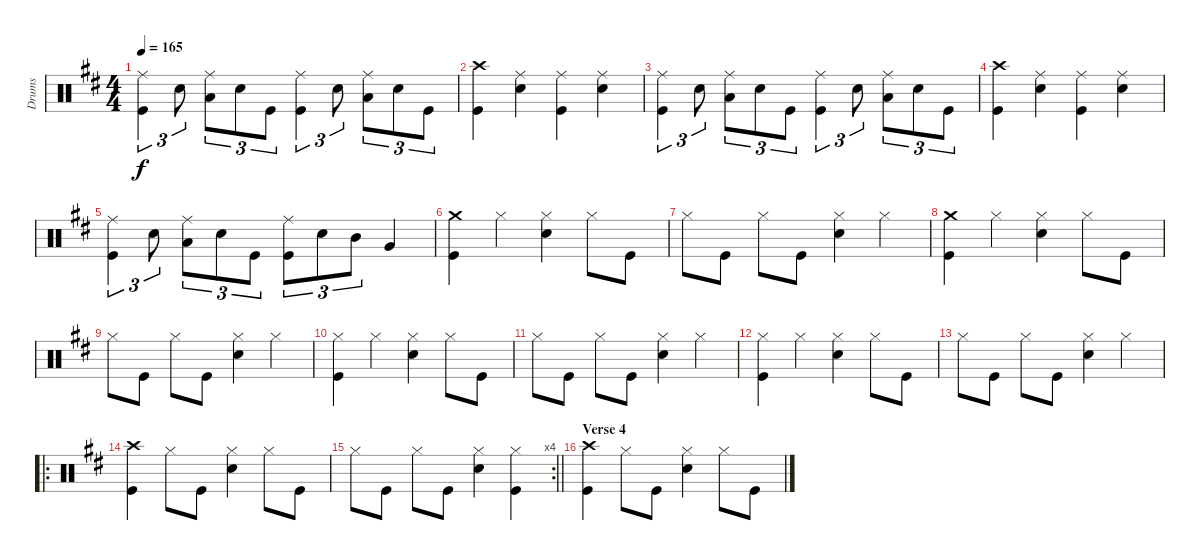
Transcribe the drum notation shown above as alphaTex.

\track ("Drums" "Drums") {instrument percussion}
\staff {score}
\articulation defaults
\ts (4 4)
\tempo 165
\clef neutral
\ks d
("Ride (middle)" "Kick (hit)").4{tu (3 2) dy f} "Snare (hit) 2".8{tu (3 2)} ("Ride (middle)" "Low Tom (hit)").8{tu (3 2)} "Snare (hit) 2".8{tu (3 2)} "Kick (hit)".8{tu (3 2)} ("Ride (middle)" "Kick (hit)").4{tu (3 2)} "Snare (hit) 2".8{tu (3 2)} ("Ride (middle)" "Low Tom (hit)").8{tu (3 2)} "Snare (hit) 2".8{tu (3 2)} "Kick (hit)".8{tu (3 2)} |
("Crash high (hit)" "Kick (hit)").4 ("Ride (middle)" "Snare (hit) 2").4 ("Ride (middle)" "Kick (hit)").4 ("Ride (middle)" "Snare (hit) 2").4 |
("Ride (middle)" "Kick (hit)").4{tu (3 2)} "Snare (hit) 2".8{tu (3 2)} ("Ride (middle)" "Low Tom (hit)").8{tu (3 2)} "Snare (hit) 2".8{tu (3 2)} "Kick (hit)".8{tu (3 2)} ("Ride (middle)" "Kick (hit)").4{tu (3 2)} "Snare (hit) 2".8{tu (3 2)} ("Ride (middle)" "Low Tom (hit)").8{tu (3 2)} "Snare (hit) 2".8{tu (3 2)} "Kick (hit)".8{tu (3 2)} |
("Crash high (hit)" "Kick (hit)").4 ("Ride (middle)" "Snare (hit) 2").4 ("Ride (middle)" "Kick (hit)").4 ("Ride (middle)" "Snare (hit) 2").4 |
("Ride (middle)" "Kick (hit)").4{tu (3 2)} "Snare (hit) 2".8{tu (3 2)} ("Ride (middle)" "Low Tom (hit)").8{tu (3 2)} "Snare (hit) 2".8{tu (3 2)} "Kick (hit)".8{tu (3 2)} ("Ride (middle)" "Kick (hit)").8{tu (3 2)} "Snare (hit) 2".8{tu (3 2)} "Mid Tom (hit)".8{tu (3 2)} "Very Low Tom (hit)".4 |
("Crash medium (hit)" "Kick (hit)").4 "Hi-Hat (closed)".4 ("Hi-Hat (closed)" "Snare (hit) 2").4 "Hi-Hat (closed)".8 "Kick (hit)".8 |
"Hi-Hat (closed)".8 "Kick (hit)".8 "Hi-Hat (closed)".8 "Kick (hit)".8 ("Hi-Hat (closed)" "Snare (hit) 2").4 "Hi-Hat (closed)".4 |
("Crash medium (hit)" "Kick (hit)").4 "Hi-Hat (closed)".4 ("Hi-Hat (closed)" "Snare (hit) 2").4 "Hi-Hat (closed)".8 "Kick (hit)".8 |
"Hi-Hat (closed)".8 "Kick (hit)".8 "Hi-Hat (closed)".8 "Kick (hit)".8 ("Hi-Hat (closed)" "Snare (hit) 2").4 "Hi-Hat (closed)".4 |
("Hi-Hat (closed)" "Kick (hit)").4 "Hi-Hat (closed)".4 ("Hi-Hat (closed)" "Snare (hit) 2").4 "Hi-Hat (closed)".8 "Kick (hit)".8 |
"Hi-Hat (closed)".8 "Kick (hit)".8 "Hi-Hat (closed)".8 "Kick (hit)".8 ("Hi-Hat (closed)" "Snare (hit) 2").4 "Hi-Hat (closed)".4 |
("Hi-Hat (closed)" "Kick (hit)").4 "Hi-Hat (closed)".4 ("Hi-Hat (closed)" "Snare (hit) 2").4 "Hi-Hat (closed)".8 "Kick (hit)".8 |
"Hi-Hat (closed)".8 "Kick (hit)".8 "Hi-Hat (closed)".8 "Kick (hit)".8 ("Hi-Hat (closed)" "Snare (hit) 2").4 "Hi-Hat (closed)".4 |
\ro
("Crash high (hit)" "Kick (hit)").4 "Hi-Hat (closed)".8 "Kick (hit)".8 ("Hi-Hat (closed)" "Snare (hit) 2").4 "Hi-Hat (closed)".8 "Kick (hit)".8 |
\rc 4
\barLineRight lightlight "Hi-Hat (closed)".8 "Kick (hit)".8 "Hi-Hat (closed)".8 "Kick (hit)".8
("Hi-Hat (closed)" "Snare (hit) 2").4 ("Hi-Hat (closed)" "Kick (hit)").4 |
\section ("" "Verse 4")
("Crash high (hit)" "Kick (hit)").4 "Hi-Hat (closed)".8 "Kick (hit)".8 ("Hi-Hat (closed)" "Snare (hit) 2").4 "Hi-Hat (closed)".8 "Kick (hit)".8
